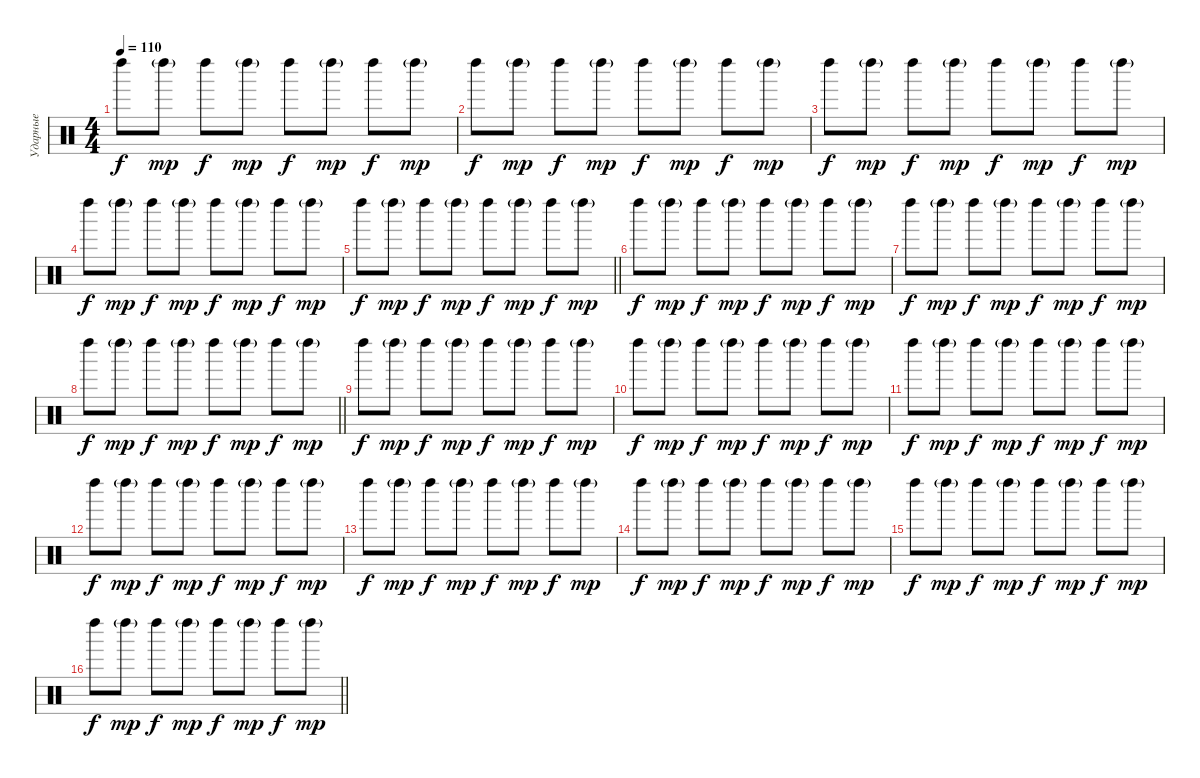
\track ("Ударные" "Ударные") {instrument percussion}
\staff {score}
\articulation defaults
\ts (4 4)
\tempo 110
\clef neutral
\ks c "Left Maraca (hit)".8{dy f} "Left Maraca (hit)"{g}.8{dy mp} "Left Maraca (hit)".8{dy f} "Left Maraca (hit)"{g}.8{dy mp} "Left Maraca (hit)".8{dy f} "Left Maraca (hit)"{g}.8{dy mp} "Left Maraca (hit)".8{dy f} "Left Maraca (hit)"{g}.8{dy mp}
|
"Left Maraca (hit)".8{dy f} "Left Maraca (hit)"{g}.8{dy mp} "Left Maraca (hit)".8{dy f} "Left Maraca (hit)"{g}.8{dy mp} "Left Maraca (hit)".8{dy f} "Left Maraca (hit)"{g}.8{dy mp} "Left Maraca (hit)".8{dy f} "Left Maraca (hit)"{g}.8{dy mp} |
"Left Maraca (hit)".8{dy f} "Left Maraca (hit)"{g}.8{dy mp} "Left Maraca (hit)".8{dy f} "Left Maraca (hit)"{g}.8{dy mp} "Left Maraca (hit)".8{dy f} "Left Maraca (hit)"{g}.8{dy mp} "Left Maraca (hit)".8{dy f} "Left Maraca (hit)"{g}.8{dy mp} |
"Left Maraca (hit)".8{dy f} "Left Maraca (hit)"{g}.8{dy mp} "Left Maraca (hit)".8{dy f} "Left Maraca (hit)"{g}.8{dy mp} "Left Maraca (hit)".8{dy f} "Left Maraca (hit)"{g}.8{dy mp} "Left Maraca (hit)".8{dy f} "Left Maraca (hit)"{g}.8{dy mp} |
\barLineRight lightlight "Left Maraca (hit)".8{dy f} "Left Maraca (hit)"{g}.8{dy mp} "Left Maraca (hit)".8{dy f} "Left Maraca (hit)"{g}.8{dy mp} "Left Maraca (hit)".8{dy f} "Left Maraca (hit)"{g}.8{dy mp} "Left Maraca (hit)".8{dy f} "Left Maraca (hit)"{g}.8{dy mp}
|
"Left Maraca (hit)".8{dy f} "Left Maraca (hit)"{g}.8{dy mp} "Left Maraca (hit)".8{dy f} "Left Maraca (hit)"{g}.8{dy mp} "Left Maraca (hit)".8{dy f} "Left Maraca (hit)"{g}.8{dy mp} "Left Maraca (hit)".8{dy f} "Left Maraca (hit)"{g}.8{dy mp} |
"Left Maraca (hit)".8{dy f} "Left Maraca (hit)"{g}.8{dy mp} "Left Maraca (hit)".8{dy f} "Left Maraca (hit)"{g}.8{dy mp} "Left Maraca (hit)".8{dy f} "Left Maraca (hit)"{g}.8{dy mp} "Left Maraca (hit)".8{dy f} "Left Maraca (hit)"{g}.8{dy mp} |
\barLineRight lightlight "Left Maraca (hit)".8{dy f} "Left Maraca (hit)"{g}.8{dy mp} "Left Maraca (hit)".8{dy f} "Left Maraca (hit)"{g}.8{dy mp} "Left Maraca (hit)".8{dy f} "Left Maraca (hit)"{g}.8{dy mp} "Left Maraca (hit)".8{dy f} "Left Maraca (hit)"{g}.8{dy mp}
|
"Left Maraca (hit)".8{dy f} "Left Maraca (hit)"{g}.8{dy mp} "Left Maraca (hit)".8{dy f} "Left Maraca (hit)"{g}.8{dy mp} "Left Maraca (hit)".8{dy f} "Left Maraca (hit)"{g}.8{dy mp} "Left Maraca (hit)".8{dy f} "Left Maraca (hit)"{g}.8{dy mp} |
"Left Maraca (hit)".8{dy f} "Left Maraca (hit)"{g}.8{dy mp} "Left Maraca (hit)".8{dy f} "Left Maraca (hit)"{g}.8{dy mp} "Left Maraca (hit)".8{dy f} "Left Maraca (hit)"{g}.8{dy mp} "Left Maraca (hit)".8{dy f} "Left Maraca (hit)"{g}.8{dy mp} |
"Left Maraca (hit)".8{dy f} "Left Maraca (hit)"{g}.8{dy mp} "Left Maraca (hit)".8{dy f} "Left Maraca (hit)"{g}.8{dy mp} "Left Maraca (hit)".8{dy f} "Left Maraca (hit)"{g}.8{dy mp} "Left Maraca (hit)".8{dy f} "Left Maraca (hit)"{g}.8{dy mp} |
"Left Maraca (hit)".8{dy f} "Left Maraca (hit)"{g}.8{dy mp} "Left Maraca (hit)".8{dy f} "Left Maraca (hit)"{g}.8{dy mp} "Left Maraca (hit)".8{dy f} "Left Maraca (hit)"{g}.8{dy mp} "Left Maraca (hit)".8{dy f} "Left Maraca (hit)"{g}.8{dy mp} |
"Left Maraca (hit)".8{dy f} "Left Maraca (hit)"{g}.8{dy mp} "Left Maraca (hit)".8{dy f} "Left Maraca (hit)"{g}.8{dy mp} "Left Maraca (hit)".8{dy f} "Left Maraca (hit)"{g}.8{dy mp} "Left Maraca (hit)".8{dy f} "Left Maraca (hit)"{g}.8{dy mp} |
"Left Maraca (hit)".8{dy f} "Left Maraca (hit)"{g}.8{dy mp} "Left Maraca (hit)".8{dy f} "Left Maraca (hit)"{g}.8{dy mp} "Left Maraca (hit)".8{dy f} "Left Maraca (hit)"{g}.8{dy mp} "Left Maraca (hit)".8{dy f} "Left Maraca (hit)"{g}.8{dy mp} |
"Left Maraca (hit)".8{dy f} "Left Maraca (hit)"{g}.8{dy mp} "Left Maraca (hit)".8{dy f} "Left Maraca (hit)"{g}.8{dy mp} "Left Maraca (hit)".8{dy f} "Left Maraca (hit)"{g}.8{dy mp} "Left Maraca (hit)".8{dy f} "Left Maraca (hit)"{g}.8{dy mp} |
\barLineRight lightlight "Left Maraca (hit)".8{dy f} "Left Maraca (hit)"{g}.8{dy mp} "Left Maraca (hit)".8{dy f} "Left Maraca (hit)"{g}.8{dy mp} "Left Maraca (hit)".8{dy f} "Left Maraca (hit)"{g}.8{dy mp} "Left Maraca (hit)".8{dy f} "Left Maraca (hit)"{g}.8{dy mp}
